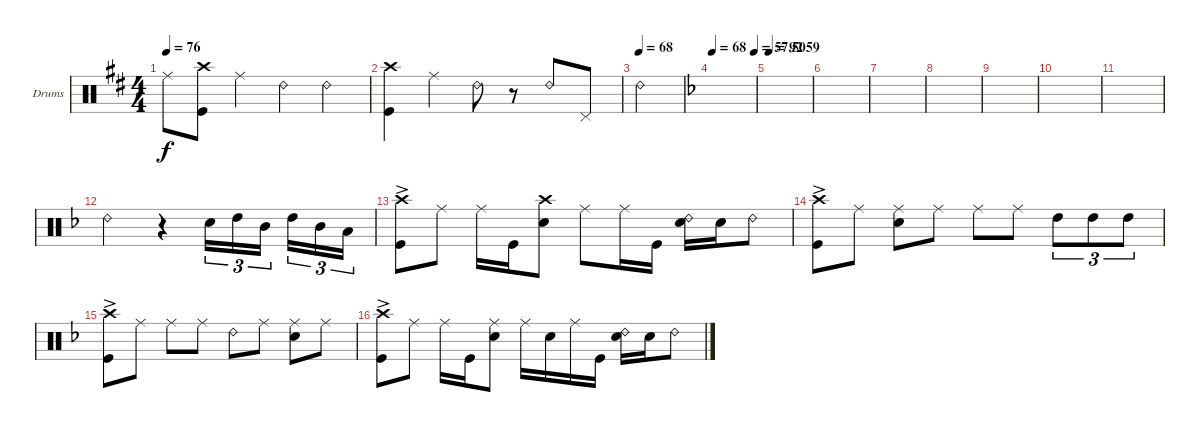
\defaultSystemsLayout 4
\bracketExtendMode groupsimilarinstruments
\firstSystemTrackNameOrientation horizontal
\otherSystemsTrackNameOrientation horizontal
\track ("Drumkit (Collins)" "Drums") {instrument percussion}
\staff {score}
\articulation defaults
\ts (4 4)
\scale
0.5
\tempo 76
\accidentals auto
\clef neutral
\ottava regular
\simile none
\ks d "Ride (middle)".8{dy f}
("Kick (hit)" "Crash high (hit)").8 "Ride (middle)".4 "Ride (bell) 2".4 "Ride (bell) 2".4 |
\scale
0.5 ("Kick (hit)" "Crash high (hit)").4 "Ride (middle)".4 "Ride (bell) 2".8 r.8 "Ride (bell) 2".8 "Pedal Hi-Hat (hit)".8 |
\scale
0.834225
\tempo (68)
"Ride (bell) 2".4 |
\tempo 68
\tempo (57.5059 0.975)
\ks dminor
|
\tempo 92
|
|
|
|
|
|
|
"Ride (bell) 2".2 r.4 "Snare (hit) 2".16{tu (3 2)} "High Tom (hit)".16{tu (3 2)} "Mid Tom (hit)".16{tu (3 2)} "High Tom (hit)".16{tu (3 2)} "Mid Tom (hit)".16{tu (3 2)} "Low Tom (hit)".16{tu (3 2)} |
("Kick (hit)" "Crash high (hit)"{ac}).8 "Ride (middle)".8 "Ride (middle)".16 "Kick (hit)".16 ("Crash high (hit)" "Snare (hit) 2").8 "Ride (middle)".8 "Ride (middle)".16 "Kick (hit)".16 ("Snare (hit) 2" "Ride (bell) 2").16 "Snare (hit) 2".16 "Ride (bell) 2".8 |
("Kick (hit)" "Crash high (hit)"{ac}).8 "Ride (middle)".8 ("Ride (middle)" "Snare (hit) 2").8 "Ride (middle)".8 "Ride (middle)".8 "Ride (middle)".8 "High Tom (hit)".8{tu (3 2)} "High Tom (hit)".8{tu (3 2)} "High Tom (hit)".8{tu (3 2)} |
("Kick (hit)" "Crash high (hit)"{ac}).8 "Ride (middle)".8 "Ride (middle)".8 "Ride (middle)".8 "Ride (bell) 2".8 "Ride (middle)".8 ("Ride (middle)" "Snare (hit) 2").8 "Ride (middle)".8 |
("Kick (hit)" "Crash high (hit)"{ac}).8 "Ride (middle)".8 "Ride (middle)".16 "Kick (hit)".16 ("Snare (hit) 2" "Ride (middle)").8 "Ride (middle)".16 "Snare (hit) 2".16 "Ride (middle)".16 "Kick (hit)".16 ("Snare (hit) 2" "Ride (bell) 2").16 "Snare (hit) 2".16 "Ride (bell) 2".8
